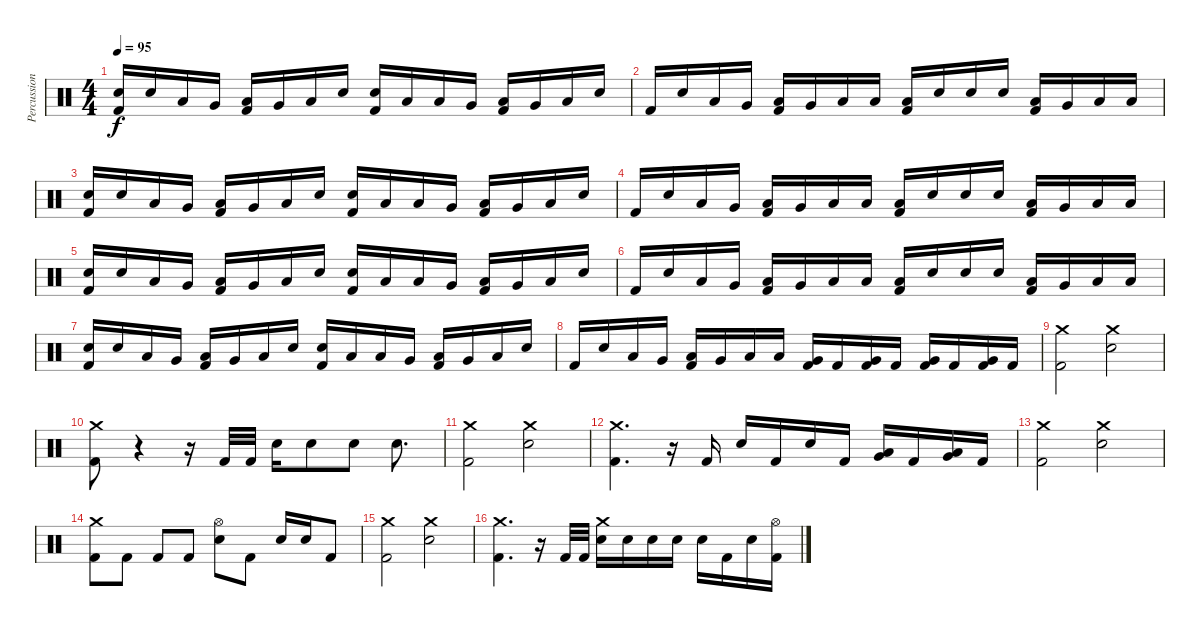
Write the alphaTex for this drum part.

\track ("Percussion" "Percussion") {instrument percussion}
\staff {score}
\articulation defaults
\ts (4 4)
\tempo 95
\clef neutral
\ks c
("Electric Snare (hit)" "Kick (hit) 2").16{dy f} "Electric Snare (hit)".16 "Low Tom (hit)".16 "Very Low Tom (hit)".16 ("Low Tom (hit)" "Kick (hit) 2").16 "Very Low Tom (hit)".16 "Low Floor Tom (hit)".16 "Electric Snare (hit)".16 ("Electric Snare (hit)" "Kick (hit) 2").16 "Low Tom (hit)".16 "Low Tom (hit)".16 "Very Low Tom (hit)".16 ("Low Tom (hit)" "Kick (hit) 2").16 "Very Low Tom (hit)".16 "Low Floor Tom (hit)".16 "Electric Snare (hit)".16 |
"Kick (hit) 2".16 "Electric Snare (hit)".16 "Low Tom (hit)".16 "Very Low Tom (hit)".16 ("Low Tom (hit)" "Kick (hit) 2").16 "Very Low Tom (hit)".16 "Low Floor Tom (hit)".16 "Low Floor Tom (hit)".16 ("Low Floor Tom (hit)" "Kick (hit) 2").16 "Electric Snare (hit)".16 "Electric Snare (hit)".16 "Electric Snare (hit)".16 ("Low Tom (hit)" "Kick (hit) 2").16 "Very Low Tom (hit)".16 "Low Floor Tom (hit)".16 "Low Floor Tom (hit)".16 |
("Electric Snare (hit)" "Kick (hit) 2").16 "Electric Snare (hit)".16 "Low Tom (hit)".16 "Very Low Tom (hit)".16 ("Low Tom (hit)" "Kick (hit) 2").16 "Very Low Tom (hit)".16 "Low Floor Tom (hit)".16 "Electric Snare (hit)".16 ("Electric Snare (hit)" "Kick (hit) 2").16 "Low Tom (hit)".16 "Low Tom (hit)".16 "Very Low Tom (hit)".16 ("Low Tom (hit)" "Kick (hit) 2").16 "Very Low Tom (hit)".16 "Low Floor Tom (hit)".16 "Electric Snare (hit)".16 |
"Kick (hit) 2".16 "Electric Snare (hit)".16 "Low Tom (hit)".16 "Very Low Tom (hit)".16 ("Low Tom (hit)" "Kick (hit) 2").16 "Very Low Tom (hit)".16 "Low Floor Tom (hit)".16 "Low Floor Tom (hit)".16 ("Low Floor Tom (hit)" "Kick (hit) 2").16 "Electric Snare (hit)".16 "Electric Snare (hit)".16 "Electric Snare (hit)".16 ("Low Tom (hit)" "Kick (hit) 2").16 "Very Low Tom (hit)".16 "Low Floor Tom (hit)".16 "Low Floor Tom (hit)".16 |
("Electric Snare (hit)" "Kick (hit) 2").16 "Electric Snare (hit)".16 "Low Tom (hit)".16 "Very Low Tom (hit)".16 ("Low Tom (hit)" "Kick (hit) 2").16 "Very Low Tom (hit)".16 "Low Floor Tom (hit)".16 "Electric Snare (hit)".16 ("Electric Snare (hit)" "Kick (hit) 2").16 "Low Tom (hit)".16 "Low Tom (hit)".16 "Very Low Tom (hit)".16 ("Low Tom (hit)" "Kick (hit) 2").16 "Very Low Tom (hit)".16 "Low Floor Tom (hit)".16 "Electric Snare (hit)".16 |
"Kick (hit) 2".16 "Electric Snare (hit)".16 "Low Tom (hit)".16 "Very Low Tom (hit)".16 ("Low Tom (hit)" "Kick (hit) 2").16 "Very Low Tom (hit)".16 "Low Floor Tom (hit)".16 "Low Floor Tom (hit)".16 ("Low Floor Tom (hit)" "Kick (hit) 2").16 "Electric Snare (hit)".16 "Electric Snare (hit)".16 "Electric Snare (hit)".16 ("Low Tom (hit)" "Kick (hit) 2").16 "Very Low Tom (hit)".16 "Low Floor Tom (hit)".16 "Low Floor Tom (hit)".16 |
("Electric Snare (hit)" "Kick (hit) 2").16 "Electric Snare (hit)".16 "Low Tom (hit)".16 "Very Low Tom (hit)".16 ("Low Tom (hit)" "Kick (hit) 2").16 "Very Low Tom (hit)".16 "Low Floor Tom (hit)".16 "Electric Snare (hit)".16 ("Electric Snare (hit)" "Kick (hit) 2").16 "Low Tom (hit)".16 "Low Tom (hit)".16 "Very Low Tom (hit)".16 ("Low Tom (hit)" "Kick (hit) 2").16 "Very Low Tom (hit)".16 "Low Floor Tom (hit)".16 "Electric Snare (hit)".16 |
"Kick (hit) 2".16 "Electric Snare (hit)".16 "Low Tom (hit)".16 "Very Low Tom (hit)".16 ("Low Tom (hit)" "Kick (hit) 2").16 "Very Low Tom (hit)".16 "Low Floor Tom (hit)".16 "Low Floor Tom (hit)".16 ("Very Low Tom (hit)" "Kick (hit) 2").16 "Kick (hit) 2".16 ("Very Low Tom (hit)" "Kick (hit) 2").16 "Kick (hit) 2".16 ("Very Low Tom (hit)" "Kick (hit) 2").16 "Kick (hit) 2".16 ("Very Low Tom (hit)" "Kick (hit) 2").16 "Kick (hit) 2".16 |
("Crash medium (hit)" "Kick (hit) 2").2 ("Crash medium (hit)" "Electric Snare (hit)").2 |
("Crash medium (hit)" "Kick (hit) 2").8 r.4 r.16 "Kick (hit) 2".32 "Kick (hit) 2".32 "Electric Snare (hit)".16 "Electric Snare (hit)".8 "Electric Snare (hit)".8 "Electric Snare (hit)".8{d} |
("Crash medium (hit)" "Kick (hit) 2").2 ("Crash medium (hit)" "Electric Snare (hit)").2 |
("Crash medium (hit)" "Kick (hit) 2").4{d} r.16 "Kick (hit) 2".16 "Electric Snare (hit)".16 "Kick (hit) 2".16 "Electric Snare (hit)".16 "Kick (hit) 2".16 ("Low Tom (hit)" "Very Low Tom (hit)").16 "Kick (hit) 2".16 ("Very Low Tom (hit)" "Low Floor Tom (hit)").16 "Kick (hit) 2".16 |
("Crash medium (hit)" "Kick (hit) 2").2 ("Crash medium (hit)" "Electric Snare (hit)").2 |
("Crash medium (hit)" "Kick (hit) 2").8 "Kick (hit) 2".8 "Kick (hit) 2".8 "Kick (hit) 2".8 ("Hi-Hat (open)" "Electric Snare (hit)").8 "Kick (hit) 2".8 "Electric Snare (hit)".16 "Electric Snare (hit)".16 "Kick (hit) 2".8 |
("Crash medium (hit)" "Kick (hit) 2").2 ("Crash medium (hit)" "Electric Snare (hit)").2 |
("Crash medium (hit)" "Kick (hit) 2").4{d} r.16 "Kick (hit) 2".32 "Kick (hit) 2".32 ("Crash medium (hit)" "Electric Snare (hit)").16 "Electric Snare (hit)".16 "Electric Snare (hit)".16 "Electric Snare (hit)".16 "Electric Snare (hit)".16 "Kick (hit) 2".16 "Electric Snare (hit)".16 ("Hi-Hat (open)" "Kick (hit) 2").16
